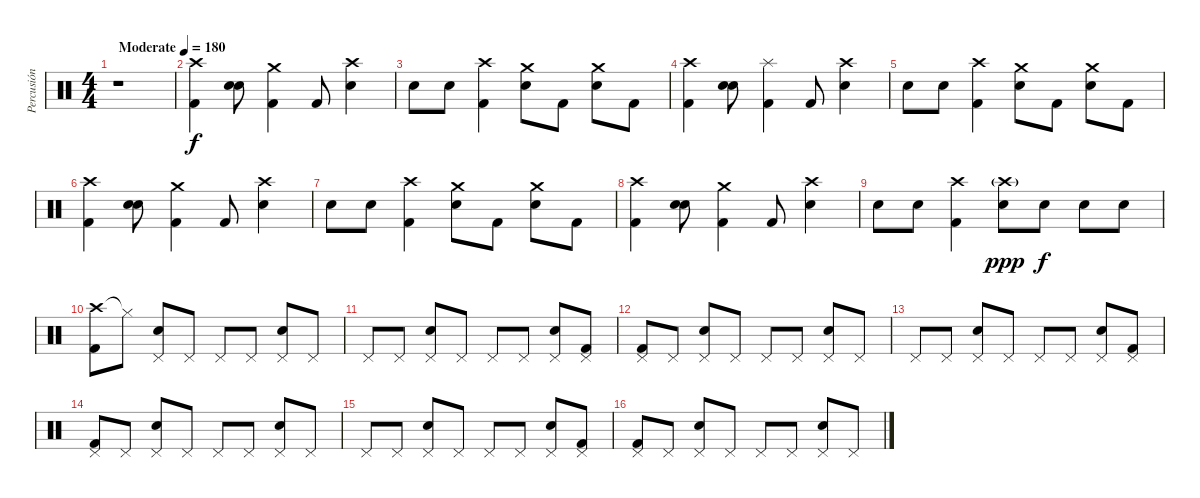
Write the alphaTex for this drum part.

\track ("Percusión" "Percusión") {instrument percussion}
\staff {score}
\articulation defaults
\ts (4 4)
\tempo (180 "Moderate")
\clef neutral
\ks c
r.1{dy f} |
("Crash high (hit)" "Kick (hit) 2").4 ("Electric Snare (hit)" "Electric Snare (hit)").8{bd 240} ("Crash medium (hit)" "Kick (hit) 2").4 "Kick (hit) 2".8 ("Crash high (hit)" "Electric Snare (hit)").4 |
"Electric Snare (hit)".8 "Electric Snare (hit)".8 ("Crash high (hit)" "Kick (hit) 2").4 ("Crash medium (hit)" "Electric Snare (hit)").8 "Kick (hit) 2".8 ("Crash medium (hit)" "Electric Snare (hit)").8 "Kick (hit) 2".8 |
("Crash high (hit)" "Kick (hit) 2").4 ("Electric Snare (hit)" "Electric Snare (hit)").8{bd 240} ("Splash (hit)" "Kick (hit) 2").4 "Kick (hit) 2".8 ("Crash high (hit)" "Electric Snare (hit)").4 |
"Electric Snare (hit)".8 "Electric Snare (hit)".8 ("Crash high (hit)" "Kick (hit) 2").4 ("Crash medium (hit)" "Electric Snare (hit)").8 "Kick (hit) 2".8 ("Crash medium (hit)" "Electric Snare (hit)").8 "Kick (hit) 2".8 |
("Crash high (hit)" "Kick (hit) 2").4 ("Electric Snare (hit)" "Electric Snare (hit)").8{bd 240} ("Crash medium (hit)" "Kick (hit) 2").4 "Kick (hit) 2".8 ("Crash high (hit)" "Electric Snare (hit)").4 |
"Electric Snare (hit)".8 "Electric Snare (hit)".8 ("Crash high (hit)" "Kick (hit) 2").4 ("Crash medium (hit)" "Electric Snare (hit)").8 "Kick (hit) 2".8 ("Crash medium (hit)" "Electric Snare (hit)").8 "Kick (hit) 2".8 |
("Crash high (hit)" "Kick (hit) 2").4 ("Electric Snare (hit)" "Electric Snare (hit)").8{bd 240} ("Crash medium (hit)" "Kick (hit) 2").4 "Kick (hit) 2".8 ("Crash high (hit)" "Electric Snare (hit)").4 |
"Electric Snare (hit)".8 "Electric Snare (hit)".8 ("Crash high (hit)" "Kick (hit) 2").4 ("Crash high (hit)"{g} "Electric Snare (hit)").8{dy ppp} "Electric Snare (hit)".8{dy f} "Electric Snare (hit)".8 "Electric Snare (hit)".8 |
("Crash high (hit)" "Kick (hit) 2").8 "Hi-Hat (closed)"{t}.8 ("Pedal Hi-Hat (hit)" "Electric Snare (hit)").8 "Pedal Hi-Hat (hit)".8 "Pedal Hi-Hat (hit)".8 "Pedal Hi-Hat (hit)".8 ("Pedal Hi-Hat (hit)" "Electric Snare (hit)").8 "Pedal Hi-Hat (hit)".8 |
"Pedal Hi-Hat (hit)".8 "Pedal Hi-Hat (hit)".8 ("Pedal Hi-Hat (hit)" "Electric Snare (hit)").8 "Pedal Hi-Hat (hit)".8 "Pedal Hi-Hat (hit)".8 "Pedal Hi-Hat (hit)".8 ("Pedal Hi-Hat (hit)" "Electric Snare (hit)").8 ("Pedal Hi-Hat (hit)" "Kick (hit) 2").8 |
("Pedal Hi-Hat (hit)" "Kick (hit) 2").8 "Pedal Hi-Hat (hit)".8 ("Pedal Hi-Hat (hit)" "Electric Snare (hit)").8 "Pedal Hi-Hat (hit)".8 "Pedal Hi-Hat (hit)".8 "Pedal Hi-Hat (hit)".8 ("Pedal Hi-Hat (hit)" "Electric Snare (hit)").8 "Pedal Hi-Hat (hit)".8 |
"Pedal Hi-Hat (hit)".8 "Pedal Hi-Hat (hit)".8 ("Pedal Hi-Hat (hit)" "Electric Snare (hit)").8 "Pedal Hi-Hat (hit)".8 "Pedal Hi-Hat (hit)".8 "Pedal Hi-Hat (hit)".8 ("Pedal Hi-Hat (hit)" "Electric Snare (hit)").8 ("Pedal Hi-Hat (hit)" "Kick (hit) 2").8 |
("Pedal Hi-Hat (hit)" "Kick (hit) 2").8 "Pedal Hi-Hat (hit)".8 ("Pedal Hi-Hat (hit)" "Electric Snare (hit)").8 "Pedal Hi-Hat (hit)".8 "Pedal Hi-Hat (hit)".8 "Pedal Hi-Hat (hit)".8 ("Pedal Hi-Hat (hit)" "Electric Snare (hit)").8 "Pedal Hi-Hat (hit)".8 |
"Pedal Hi-Hat (hit)".8 "Pedal Hi-Hat (hit)".8 ("Pedal Hi-Hat (hit)" "Electric Snare (hit)").8 "Pedal Hi-Hat (hit)".8 "Pedal Hi-Hat (hit)".8 "Pedal Hi-Hat (hit)".8 ("Pedal Hi-Hat (hit)" "Electric Snare (hit)").8 ("Pedal Hi-Hat (hit)" "Kick (hit) 2").8 |
("Pedal Hi-Hat (hit)" "Kick (hit) 2").8 "Pedal Hi-Hat (hit)".8 ("Pedal Hi-Hat (hit)" "Electric Snare (hit)").8 "Pedal Hi-Hat (hit)".8 "Pedal Hi-Hat (hit)".8 "Pedal Hi-Hat (hit)".8 ("Pedal Hi-Hat (hit)" "Electric Snare (hit)").8 "Pedal Hi-Hat (hit)".8
